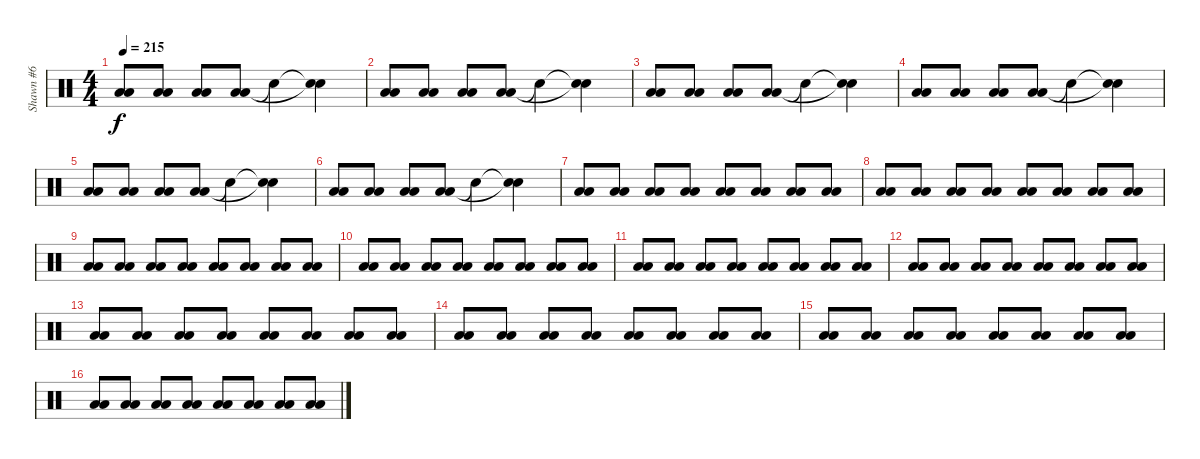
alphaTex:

\track ("Shawn #6" "Shawn #6") {instrument percussion}
\staff {score}
\articulation defaults
\ts (4 4)
\tempo 215
\clef neutral
\ks c
("Low Floor Tom (hit)" "Low Floor Tom (hit)").8{dy f} ("Low Floor Tom (hit)" "Low Floor Tom (hit)").8 ("Low Floor Tom (hit)" "Low Floor Tom (hit)").8 ("Low Floor Tom (hit)" "Low Floor Tom (hit)").8 "Snare (hit)"{t}.4 ("Snare (hit)"{t} "Snare (hit)"{t}).4 |
("Low Floor Tom (hit)" "Low Floor Tom (hit)").8 ("Low Floor Tom (hit)" "Low Floor Tom (hit)").8 ("Low Floor Tom (hit)" "Low Floor Tom (hit)").8 ("Low Floor Tom (hit)" "Low Floor Tom (hit)").8 "Snare (hit)"{t}.4 ("Snare (hit)"{t} "Snare (hit)"{t}).4 |
("Low Floor Tom (hit)" "Low Floor Tom (hit)").8 ("Low Floor Tom (hit)" "Low Floor Tom (hit)").8 ("Low Floor Tom (hit)" "Low Floor Tom (hit)").8 ("Low Floor Tom (hit)" "Low Floor Tom (hit)").8 "Snare (hit)"{t}.4 ("Snare (hit)"{t} "Snare (hit)"{t}).4 |
("Low Floor Tom (hit)" "Low Floor Tom (hit)").8 ("Low Floor Tom (hit)" "Low Floor Tom (hit)").8 ("Low Floor Tom (hit)" "Low Floor Tom (hit)").8 ("Low Floor Tom (hit)" "Low Floor Tom (hit)").8 "Snare (hit)"{t}.4 ("Snare (hit)"{t} "Snare (hit)"{t}).4 |
("Low Floor Tom (hit)" "Low Floor Tom (hit)").8 ("Low Floor Tom (hit)" "Low Floor Tom (hit)").8 ("Low Floor Tom (hit)" "Low Floor Tom (hit)").8 ("Low Floor Tom (hit)" "Low Floor Tom (hit)").8 "Snare (hit)"{t}.4 ("Snare (hit)"{t} "Snare (hit)"{t}).4 |
("Low Floor Tom (hit)" "Low Floor Tom (hit)").8 ("Low Floor Tom (hit)" "Low Floor Tom (hit)").8 ("Low Floor Tom (hit)" "Low Floor Tom (hit)").8 ("Low Floor Tom (hit)" "Low Floor Tom (hit)").8 "Snare (hit)"{t}.4 ("Snare (hit)"{t} "Snare (hit)"{t}).4 |
("Low Floor Tom (hit)" "Low Floor Tom (hit)").8 ("Low Floor Tom (hit)" "Low Floor Tom (hit)").8 ("Low Floor Tom (hit)" "Low Floor Tom (hit)").8 ("Low Floor Tom (hit)" "Low Floor Tom (hit)").8 ("Low Floor Tom (hit)" "Low Floor Tom (hit)").8 ("Low Floor Tom (hit)" "Low Floor Tom (hit)").8 ("Low Floor Tom (hit)" "Low Floor Tom (hit)").8 ("Low Floor Tom (hit)" "Low Floor Tom (hit)").8 |
("Low Floor Tom (hit)" "Low Floor Tom (hit)").8 ("Low Floor Tom (hit)" "Low Floor Tom (hit)").8 ("Low Floor Tom (hit)" "Low Floor Tom (hit)").8 ("Low Floor Tom (hit)" "Low Floor Tom (hit)").8 ("Low Floor Tom (hit)" "Low Floor Tom (hit)").8 ("Low Floor Tom (hit)" "Low Floor Tom (hit)").8 ("Low Floor Tom (hit)" "Low Floor Tom (hit)").8 ("Low Floor Tom (hit)" "Low Floor Tom (hit)").8 |
("Low Floor Tom (hit)" "Low Floor Tom (hit)").8 ("Low Floor Tom (hit)" "Low Floor Tom (hit)").8 ("Low Floor Tom (hit)" "Low Floor Tom (hit)").8 ("Low Floor Tom (hit)" "Low Floor Tom (hit)").8 ("Low Floor Tom (hit)" "Low Floor Tom (hit)").8 ("Low Floor Tom (hit)" "Low Floor Tom (hit)").8 ("Low Floor Tom (hit)" "Low Floor Tom (hit)").8 ("Low Floor Tom (hit)" "Low Floor Tom (hit)").8 |
("Low Floor Tom (hit)" "Low Floor Tom (hit)").8 ("Low Floor Tom (hit)" "Low Floor Tom (hit)").8 ("Low Floor Tom (hit)" "Low Floor Tom (hit)").8 ("Low Floor Tom (hit)" "Low Floor Tom (hit)").8 ("Low Floor Tom (hit)" "Low Floor Tom (hit)").8 ("Low Floor Tom (hit)" "Low Floor Tom (hit)").8 ("Low Floor Tom (hit)" "Low Floor Tom (hit)").8 ("Low Floor Tom (hit)" "Low Floor Tom (hit)").8 |
("Low Floor Tom (hit)" "Low Floor Tom (hit)").8 ("Low Floor Tom (hit)" "Low Floor Tom (hit)").8 ("Low Floor Tom (hit)" "Low Floor Tom (hit)").8 ("Low Floor Tom (hit)" "Low Floor Tom (hit)").8 ("Low Floor Tom (hit)" "Low Floor Tom (hit)").8 ("Low Floor Tom (hit)" "Low Floor Tom (hit)").8 ("Low Floor Tom (hit)" "Low Floor Tom (hit)").8 ("Low Floor Tom (hit)" "Low Floor Tom (hit)").8 |
("Low Floor Tom (hit)" "Low Floor Tom (hit)").8 ("Low Floor Tom (hit)" "Low Floor Tom (hit)").8 ("Low Floor Tom (hit)" "Low Floor Tom (hit)").8 ("Low Floor Tom (hit)" "Low Floor Tom (hit)").8 ("Low Floor Tom (hit)" "Low Floor Tom (hit)").8 ("Low Floor Tom (hit)" "Low Floor Tom (hit)").8 ("Low Floor Tom (hit)" "Low Floor Tom (hit)").8 ("Low Floor Tom (hit)" "Low Floor Tom (hit)").8 |
("Low Floor Tom (hit)" "Low Floor Tom (hit)").8 ("Low Floor Tom (hit)" "Low Floor Tom (hit)").8 ("Low Floor Tom (hit)" "Low Floor Tom (hit)").8 ("Low Floor Tom (hit)" "Low Floor Tom (hit)").8 ("Low Floor Tom (hit)" "Low Floor Tom (hit)").8 ("Low Floor Tom (hit)" "Low Floor Tom (hit)").8 ("Low Floor Tom (hit)" "Low Floor Tom (hit)").8 ("Low Floor Tom (hit)" "Low Floor Tom (hit)").8 |
("Low Floor Tom (hit)" "Low Floor Tom (hit)").8 ("Low Floor Tom (hit)" "Low Floor Tom (hit)").8 ("Low Floor Tom (hit)" "Low Floor Tom (hit)").8 ("Low Floor Tom (hit)" "Low Floor Tom (hit)").8 ("Low Floor Tom (hit)" "Low Floor Tom (hit)").8 ("Low Floor Tom (hit)" "Low Floor Tom (hit)").8 ("Low Floor Tom (hit)" "Low Floor Tom (hit)").8 ("Low Floor Tom (hit)" "Low Floor Tom (hit)").8 |
("Low Floor Tom (hit)" "Low Floor Tom (hit)").8 ("Low Floor Tom (hit)" "Low Floor Tom (hit)").8 ("Low Floor Tom (hit)" "Low Floor Tom (hit)").8 ("Low Floor Tom (hit)" "Low Floor Tom (hit)").8 ("Low Floor Tom (hit)" "Low Floor Tom (hit)").8 ("Low Floor Tom (hit)" "Low Floor Tom (hit)").8 ("Low Floor Tom (hit)" "Low Floor Tom (hit)").8 ("Low Floor Tom (hit)" "Low Floor Tom (hit)").8 |
("Low Floor Tom (hit)" "Low Floor Tom (hit)").8 ("Low Floor Tom (hit)" "Low Floor Tom (hit)").8 ("Low Floor Tom (hit)" "Low Floor Tom (hit)").8 ("Low Floor Tom (hit)" "Low Floor Tom (hit)").8 ("Low Floor Tom (hit)" "Low Floor Tom (hit)").8 ("Low Floor Tom (hit)" "Low Floor Tom (hit)").8 ("Low Floor Tom (hit)" "Low Floor Tom (hit)").8 ("Low Floor Tom (hit)" "Low Floor Tom (hit)").8
